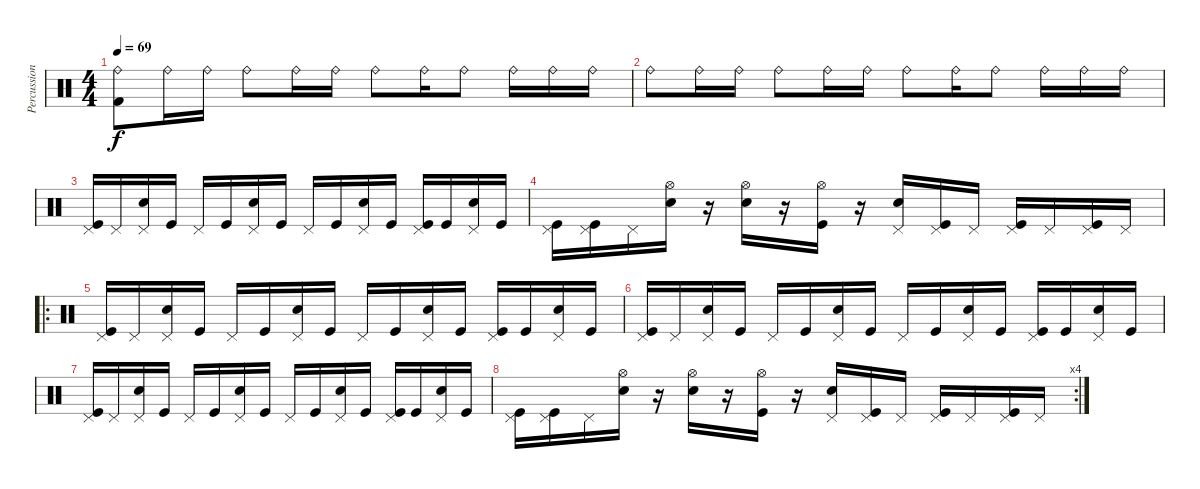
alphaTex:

\track ("Percussion" "Percussion") {instrument percussion}
\staff {score}
\articulation defaults
\ts (4 4)
\tempo 69
\clef neutral
\ks c
("Ride (bell)" "Kick (hit) 2").8{dy f} "Ride (bell)".16 "Ride (bell)".16 "Ride (bell)".8 "Ride (bell)".16 "Ride (bell)".16 "Ride (bell)".8 "Ride (bell)".16 "Ride (bell)".8 "Ride (bell)".16 "Ride (bell)".16 "Ride (bell)".16 |
"Ride (bell)".8 "Ride (bell)".16 "Ride (bell)".16 "Ride (bell)".8 "Ride (bell)".16 "Ride (bell)".16 "Ride (bell)".8 "Ride (bell)".16 "Ride (bell)".8 "Ride (bell)".16 "Ride (bell)".16 "Ride (bell)".16 |
("Pedal Hi-Hat (hit)" "Kick (hit)").16 "Pedal Hi-Hat (hit)".16 ("Pedal Hi-Hat (hit)" "Snare (hit) 2").16 "Kick (hit)".16 "Pedal Hi-Hat (hit)".16 "Kick (hit)".16 ("Pedal Hi-Hat (hit)" "Snare (hit) 2").16 "Kick (hit)".16 "Pedal Hi-Hat (hit)".16 "Kick (hit)".16 ("Pedal Hi-Hat (hit)" "Snare (hit) 2").16 "Kick (hit)".16 ("Pedal Hi-Hat (hit)" "Kick (hit)").16 "Kick (hit)".16 ("Pedal Hi-Hat (hit)" "Snare (hit) 2").16 "Kick (hit)".16 |
("Pedal Hi-Hat (hit)" "Kick (hit)").16 ("Pedal Hi-Hat (hit)" "Kick (hit)").16 "Pedal Hi-Hat (hit)".16 ("Hi-Hat (open)" "Snare (hit) 2").16 r.16 ("Hi-Hat (open)" "Snare (hit) 2").16 r.16 ("Hi-Hat (open)" "Kick (hit)").16 r.16 ("Pedal Hi-Hat (hit)" "Snare (hit) 2").16 ("Pedal Hi-Hat (hit)" "Kick (hit)").16 "Pedal Hi-Hat (hit)".16 ("Pedal Hi-Hat (hit)" "Kick (hit)").16 "Pedal Hi-Hat (hit)".16 ("Pedal Hi-Hat (hit)" "Kick (hit)").16 "Pedal Hi-Hat (hit)".16 |
\ro
("Pedal Hi-Hat (hit)" "Kick (hit)").16 "Pedal Hi-Hat (hit)".16 ("Pedal Hi-Hat (hit)" "Snare (hit) 2").16 "Kick (hit)".16 "Pedal Hi-Hat (hit)".16 "Kick (hit)".16 ("Pedal Hi-Hat (hit)" "Snare (hit) 2").16 "Kick (hit)".16 "Pedal Hi-Hat (hit)".16 "Kick (hit)".16 ("Pedal Hi-Hat (hit)" "Snare (hit) 2").16 "Kick (hit)".16 ("Pedal Hi-Hat (hit)" "Kick (hit)").16 "Kick (hit)".16 ("Pedal Hi-Hat (hit)" "Snare (hit) 2").16 "Kick (hit)".16 |
("Pedal Hi-Hat (hit)" "Kick (hit)").16 "Pedal Hi-Hat (hit)".16 ("Pedal Hi-Hat (hit)" "Snare (hit) 2").16 "Kick (hit)".16 "Pedal Hi-Hat (hit)".16 "Kick (hit)".16 ("Pedal Hi-Hat (hit)" "Snare (hit) 2").16 "Kick (hit)".16 "Pedal Hi-Hat (hit)".16 "Kick (hit)".16 ("Pedal Hi-Hat (hit)" "Snare (hit) 2").16 "Kick (hit)".16 ("Pedal Hi-Hat (hit)" "Kick (hit)").16 "Kick (hit)".16 ("Pedal Hi-Hat (hit)" "Snare (hit) 2").16 "Kick (hit)".16 |
("Pedal Hi-Hat (hit)" "Kick (hit)").16 "Pedal Hi-Hat (hit)".16 ("Pedal Hi-Hat (hit)" "Snare (hit) 2").16 "Kick (hit)".16 "Pedal Hi-Hat (hit)".16 "Kick (hit)".16 ("Pedal Hi-Hat (hit)" "Snare (hit) 2").16 "Kick (hit)".16 "Pedal Hi-Hat (hit)".16 "Kick (hit)".16 ("Pedal Hi-Hat (hit)" "Snare (hit) 2").16 "Kick (hit)".16 ("Pedal Hi-Hat (hit)" "Kick (hit)").16 "Kick (hit)".16 ("Pedal Hi-Hat (hit)" "Snare (hit) 2").16 "Kick (hit)".16 |
\rc 4
("Pedal Hi-Hat (hit)" "Kick (hit)").16 ("Pedal Hi-Hat (hit)" "Kick (hit)").16 "Pedal Hi-Hat (hit)".16 ("Hi-Hat (open)" "Snare (hit) 2").16 r.16 ("Hi-Hat (open)" "Snare (hit) 2").16 r.16 ("Hi-Hat (open)" "Kick (hit)").16 r.16 ("Pedal Hi-Hat (hit)" "Snare (hit) 2").16 ("Pedal Hi-Hat (hit)" "Kick (hit)").16 "Pedal Hi-Hat (hit)".16 ("Pedal Hi-Hat (hit)" "Kick (hit)").16 "Pedal Hi-Hat (hit)".16 ("Pedal Hi-Hat (hit)" "Kick (hit)").16 "Pedal Hi-Hat (hit)".16
